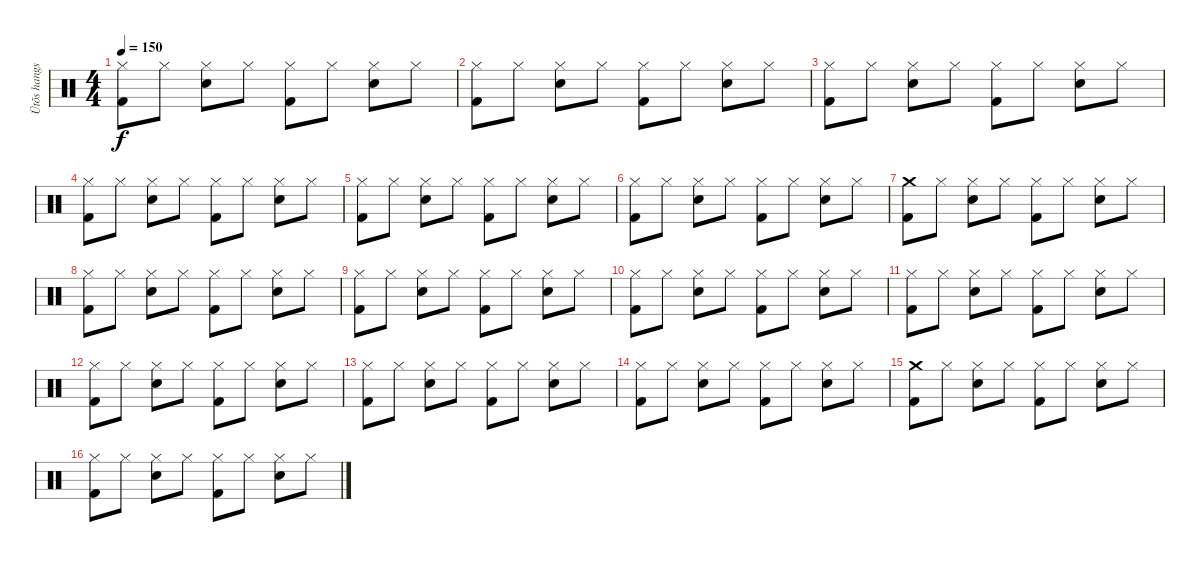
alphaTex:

\track ("Ütõs hangszer" "Ütõs hangs") {instrument percussion}
\staff {score}
\articulation defaults
\ts (4 4)
\tempo 150
\clef neutral
\ks c
("Hi-Hat (closed)" "Kick (hit) 2").8{dy f} "Hi-Hat (closed)".8 ("Hi-Hat (closed)" "Electric Snare (hit)").8 "Hi-Hat (closed)".8 ("Hi-Hat (closed)" "Kick (hit) 2").8 "Hi-Hat (closed)".8 ("Hi-Hat (closed)" "Electric Snare (hit)").8 "Hi-Hat (closed)".8 |
("Hi-Hat (closed)" "Kick (hit) 2").8 "Hi-Hat (closed)".8 ("Hi-Hat (closed)" "Electric Snare (hit)").8 "Hi-Hat (closed)".8 ("Hi-Hat (closed)" "Kick (hit) 2").8 "Hi-Hat (closed)".8 ("Hi-Hat (closed)" "Electric Snare (hit)").8 "Hi-Hat (closed)".8 |
("Hi-Hat (closed)" "Kick (hit) 2").8 "Hi-Hat (closed)".8 ("Hi-Hat (closed)" "Electric Snare (hit)").8 "Hi-Hat (closed)".8 ("Hi-Hat (closed)" "Kick (hit) 2").8 "Hi-Hat (closed)".8 ("Hi-Hat (closed)" "Electric Snare (hit)").8 "Hi-Hat (closed)".8 |
("Hi-Hat (closed)" "Kick (hit) 2").8 "Hi-Hat (closed)".8 ("Hi-Hat (closed)" "Electric Snare (hit)").8 "Hi-Hat (closed)".8 ("Hi-Hat (closed)" "Kick (hit) 2").8 "Hi-Hat (closed)".8 ("Hi-Hat (closed)" "Electric Snare (hit)").8 "Hi-Hat (closed)".8 |
("Hi-Hat (closed)" "Kick (hit) 2").8 "Hi-Hat (closed)".8 ("Hi-Hat (closed)" "Electric Snare (hit)").8 "Hi-Hat (closed)".8 ("Hi-Hat (closed)" "Kick (hit) 2").8 "Hi-Hat (closed)".8 ("Hi-Hat (closed)" "Electric Snare (hit)").8 "Hi-Hat (closed)".8 |
("Hi-Hat (closed)" "Kick (hit) 2").8 "Hi-Hat (closed)".8 ("Hi-Hat (closed)" "Electric Snare (hit)").8 "Hi-Hat (closed)".8 ("Hi-Hat (closed)" "Kick (hit) 2").8 "Hi-Hat (closed)".8 ("Hi-Hat (closed)" "Electric Snare (hit)").8 "Hi-Hat (closed)".8 |
("Crash medium (hit)" "Kick (hit) 2").8 "Hi-Hat (closed)".8 ("Hi-Hat (closed)" "Electric Snare (hit)").8 "Hi-Hat (closed)".8 ("Hi-Hat (closed)" "Kick (hit) 2").8 "Hi-Hat (closed)".8 ("Hi-Hat (closed)" "Electric Snare (hit)").8 "Hi-Hat (closed)".8 |
("Hi-Hat (closed)" "Kick (hit) 2").8 "Hi-Hat (closed)".8 ("Hi-Hat (closed)" "Electric Snare (hit)").8 "Hi-Hat (closed)".8 ("Hi-Hat (closed)" "Kick (hit) 2").8 "Hi-Hat (closed)".8 ("Hi-Hat (closed)" "Electric Snare (hit)").8 "Hi-Hat (closed)".8 |
("Hi-Hat (closed)" "Kick (hit) 2").8 "Hi-Hat (closed)".8 ("Hi-Hat (closed)" "Electric Snare (hit)").8 "Hi-Hat (closed)".8 ("Hi-Hat (closed)" "Kick (hit) 2").8 "Hi-Hat (closed)".8 ("Hi-Hat (closed)" "Electric Snare (hit)").8 "Hi-Hat (closed)".8 |
("Hi-Hat (closed)" "Kick (hit) 2").8 "Hi-Hat (closed)".8 ("Hi-Hat (closed)" "Electric Snare (hit)").8 "Hi-Hat (closed)".8 ("Hi-Hat (closed)" "Kick (hit) 2").8 "Hi-Hat (closed)".8 ("Hi-Hat (closed)" "Electric Snare (hit)").8 "Hi-Hat (closed)".8 |
("Hi-Hat (closed)" "Kick (hit) 2").8 "Hi-Hat (closed)".8 ("Hi-Hat (closed)" "Electric Snare (hit)").8 "Hi-Hat (closed)".8 ("Hi-Hat (closed)" "Kick (hit) 2").8 "Hi-Hat (closed)".8 ("Hi-Hat (closed)" "Electric Snare (hit)").8 "Hi-Hat (closed)".8 |
("Hi-Hat (closed)" "Kick (hit) 2").8 "Hi-Hat (closed)".8 ("Hi-Hat (closed)" "Electric Snare (hit)").8 "Hi-Hat (closed)".8 ("Hi-Hat (closed)" "Kick (hit) 2").8 "Hi-Hat (closed)".8 ("Hi-Hat (closed)" "Electric Snare (hit)").8 "Hi-Hat (closed)".8 |
("Hi-Hat (closed)" "Kick (hit) 2").8 "Hi-Hat (closed)".8 ("Hi-Hat (closed)" "Electric Snare (hit)").8 "Hi-Hat (closed)".8 ("Hi-Hat (closed)" "Kick (hit) 2").8 "Hi-Hat (closed)".8 ("Hi-Hat (closed)" "Electric Snare (hit)").8 "Hi-Hat (closed)".8 |
("Hi-Hat (closed)" "Kick (hit) 2").8 "Hi-Hat (closed)".8 ("Hi-Hat (closed)" "Electric Snare (hit)").8 "Hi-Hat (closed)".8 ("Hi-Hat (closed)" "Kick (hit) 2").8 "Hi-Hat (closed)".8 ("Hi-Hat (closed)" "Electric Snare (hit)").8 "Hi-Hat (closed)".8 |
("Crash medium (hit)" "Kick (hit) 2").8 "Hi-Hat (closed)".8 ("Hi-Hat (closed)" "Electric Snare (hit)").8 "Hi-Hat (closed)".8 ("Hi-Hat (closed)" "Kick (hit) 2").8 "Hi-Hat (closed)".8 ("Hi-Hat (closed)" "Electric Snare (hit)").8 "Hi-Hat (closed)".8 |
("Hi-Hat (closed)" "Kick (hit) 2").8 "Hi-Hat (closed)".8 ("Hi-Hat (closed)" "Electric Snare (hit)").8 "Hi-Hat (closed)".8 ("Hi-Hat (closed)" "Kick (hit) 2").8 "Hi-Hat (closed)".8 ("Hi-Hat (closed)" "Electric Snare (hit)").8 "Hi-Hat (closed)".8
